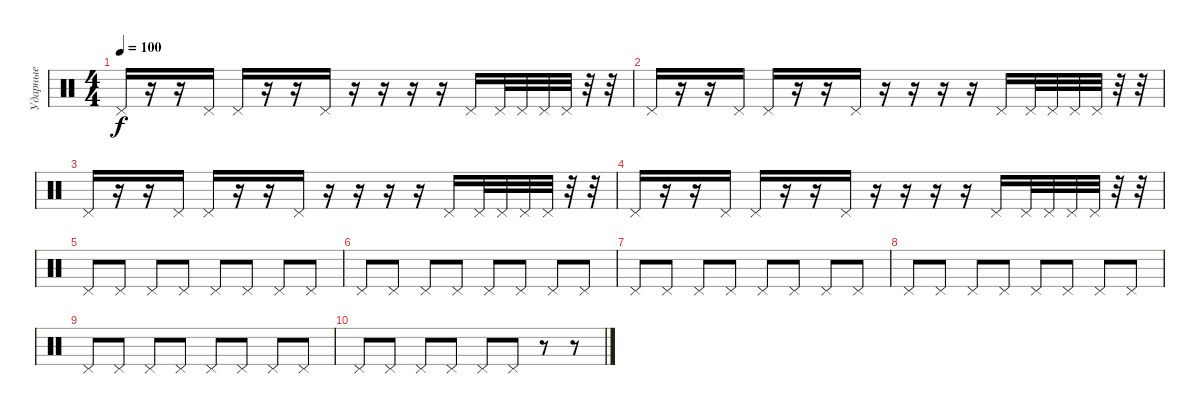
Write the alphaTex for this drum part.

\track ("Ударные" "Ударные") {instrument percussion}
\staff {score}
\articulation defaults
\ts (4 4)
\tempo 100
\clef neutral
\ks c "Pedal Hi-Hat (hit)".16{dy f}
r.16 r.16 "Pedal Hi-Hat (hit)".16 "Pedal Hi-Hat (hit)".16 r.16 r.16 "Pedal Hi-Hat (hit)".16 r.16 r.16 r.16 r.16 "Pedal Hi-Hat (hit)".16 "Pedal Hi-Hat (hit)".32 "Pedal Hi-Hat (hit)".32 "Pedal Hi-Hat (hit)".32 "Pedal Hi-Hat (hit)".32 r.32 r.32 |
"Pedal Hi-Hat (hit)".16 r.16 r.16 "Pedal Hi-Hat (hit)".16 "Pedal Hi-Hat (hit)".16 r.16 r.16 "Pedal Hi-Hat (hit)".16 r.16 r.16 r.16 r.16 "Pedal Hi-Hat (hit)".16 "Pedal Hi-Hat (hit)".32 "Pedal Hi-Hat (hit)".32 "Pedal Hi-Hat (hit)".32 "Pedal Hi-Hat (hit)".32 r.32 r.32 |
"Pedal Hi-Hat (hit)".16 r.16 r.16 "Pedal Hi-Hat (hit)".16 "Pedal Hi-Hat (hit)".16 r.16 r.16 "Pedal Hi-Hat (hit)".16 r.16 r.16 r.16 r.16 "Pedal Hi-Hat (hit)".16 "Pedal Hi-Hat (hit)".32 "Pedal Hi-Hat (hit)".32 "Pedal Hi-Hat (hit)".32 "Pedal Hi-Hat (hit)".32 r.32 r.32 |
"Pedal Hi-Hat (hit)".16 r.16 r.16 "Pedal Hi-Hat (hit)".16 "Pedal Hi-Hat (hit)".16 r.16 r.16 "Pedal Hi-Hat (hit)".16 r.16 r.16 r.16 r.16 "Pedal Hi-Hat (hit)".16 "Pedal Hi-Hat (hit)".32 "Pedal Hi-Hat (hit)".32 "Pedal Hi-Hat (hit)".32 "Pedal Hi-Hat (hit)".32 r.32 r.32 |
"Pedal Hi-Hat (hit)".8 "Pedal Hi-Hat (hit)".8 "Pedal Hi-Hat (hit)".8 "Pedal Hi-Hat (hit)".8 "Pedal Hi-Hat (hit)".8 "Pedal Hi-Hat (hit)".8 "Pedal Hi-Hat (hit)".8 "Pedal Hi-Hat (hit)".8 |
"Pedal Hi-Hat (hit)".8 "Pedal Hi-Hat (hit)".8 "Pedal Hi-Hat (hit)".8 "Pedal Hi-Hat (hit)".8 "Pedal Hi-Hat (hit)".8 "Pedal Hi-Hat (hit)".8 "Pedal Hi-Hat (hit)".8 "Pedal Hi-Hat (hit)".8 |
"Pedal Hi-Hat (hit)".8 "Pedal Hi-Hat (hit)".8 "Pedal Hi-Hat (hit)".8 "Pedal Hi-Hat (hit)".8 "Pedal Hi-Hat (hit)".8 "Pedal Hi-Hat (hit)".8 "Pedal Hi-Hat (hit)".8 "Pedal Hi-Hat (hit)".8 |
"Pedal Hi-Hat (hit)".8 "Pedal Hi-Hat (hit)".8 "Pedal Hi-Hat (hit)".8 "Pedal Hi-Hat (hit)".8 "Pedal Hi-Hat (hit)".8 "Pedal Hi-Hat (hit)".8 "Pedal Hi-Hat (hit)".8 "Pedal Hi-Hat (hit)".8 |
"Pedal Hi-Hat (hit)".8 "Pedal Hi-Hat (hit)".8 "Pedal Hi-Hat (hit)".8 "Pedal Hi-Hat (hit)".8 "Pedal Hi-Hat (hit)".8 "Pedal Hi-Hat (hit)".8 "Pedal Hi-Hat (hit)".8 "Pedal Hi-Hat (hit)".8 |
"Pedal Hi-Hat (hit)".8 "Pedal Hi-Hat (hit)".8 "Pedal Hi-Hat (hit)".8 "Pedal Hi-Hat (hit)".8 "Pedal Hi-Hat (hit)".8 "Pedal Hi-Hat (hit)".8 r.8 r.8
